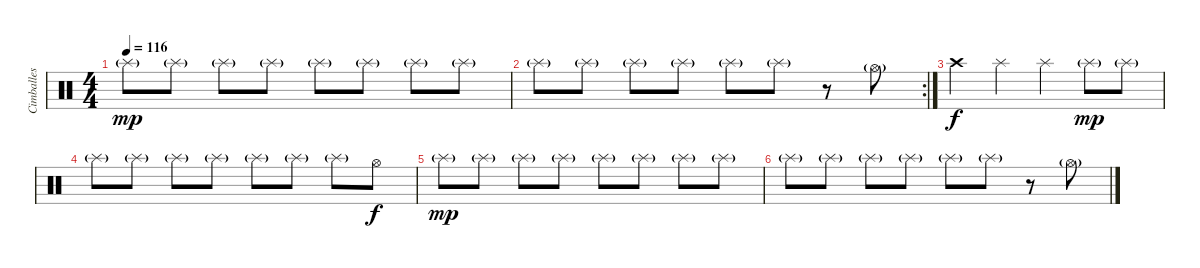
\track ("Cimballes" "Cimballes") {instrument percussion}
\staff {score}
\articulation defaults
\ts (4 4)
\tempo 116
\clef neutral
\ks c "Splash (hit)"{g}.8{dy mp} "Splash (hit)"{g}.8 "Splash (hit)"{g}.8 "Splash (hit)"{g}.8 "Splash (hit)"{g}.8 "Splash (hit)"{g}.8 "Splash (hit)"{g}.8 "Splash (hit)"{g}.8
|
\rc 2 "Splash (hit)"{g}.8 "Splash (hit)"{g}.8 "Splash (hit)"{g}.8 "Splash (hit)"{g}.8 "Splash (hit)"{g}.8 "Splash (hit)"{g}.8
r.8 "Hi-Hat (open)"{g}.8 |
"Crash high (hit)".4{dy f} "Splash (hit)".4 "Splash (hit)".4 "Splash (hit)"{g}.8{dy mp} "Splash (hit)"{g}.8 |
"Splash (hit)"{g}.8 "Splash (hit)"{g}.8 "Splash (hit)"{g}.8 "Splash (hit)"{g}.8 "Splash (hit)"{g}.8 "Splash (hit)"{g}.8 "Splash (hit)"{g}.8 "Hi-Hat (open)".8{dy f} |
"Splash (hit)"{g}.8{dy mp} "Splash (hit)"{g}.8 "Splash (hit)"{g}.8 "Splash (hit)"{g}.8 "Splash (hit)"{g}.8 "Splash (hit)"{g}.8 "Splash (hit)"{g}.8 "Splash (hit)"{g}.8 |
"Splash (hit)"{g}.8 "Splash (hit)"{g}.8 "Splash (hit)"{g}.8 "Splash (hit)"{g}.8 "Splash (hit)"{g}.8 "Splash (hit)"{g}.8 r.8 "Hi-Hat (open)"{g}.8
